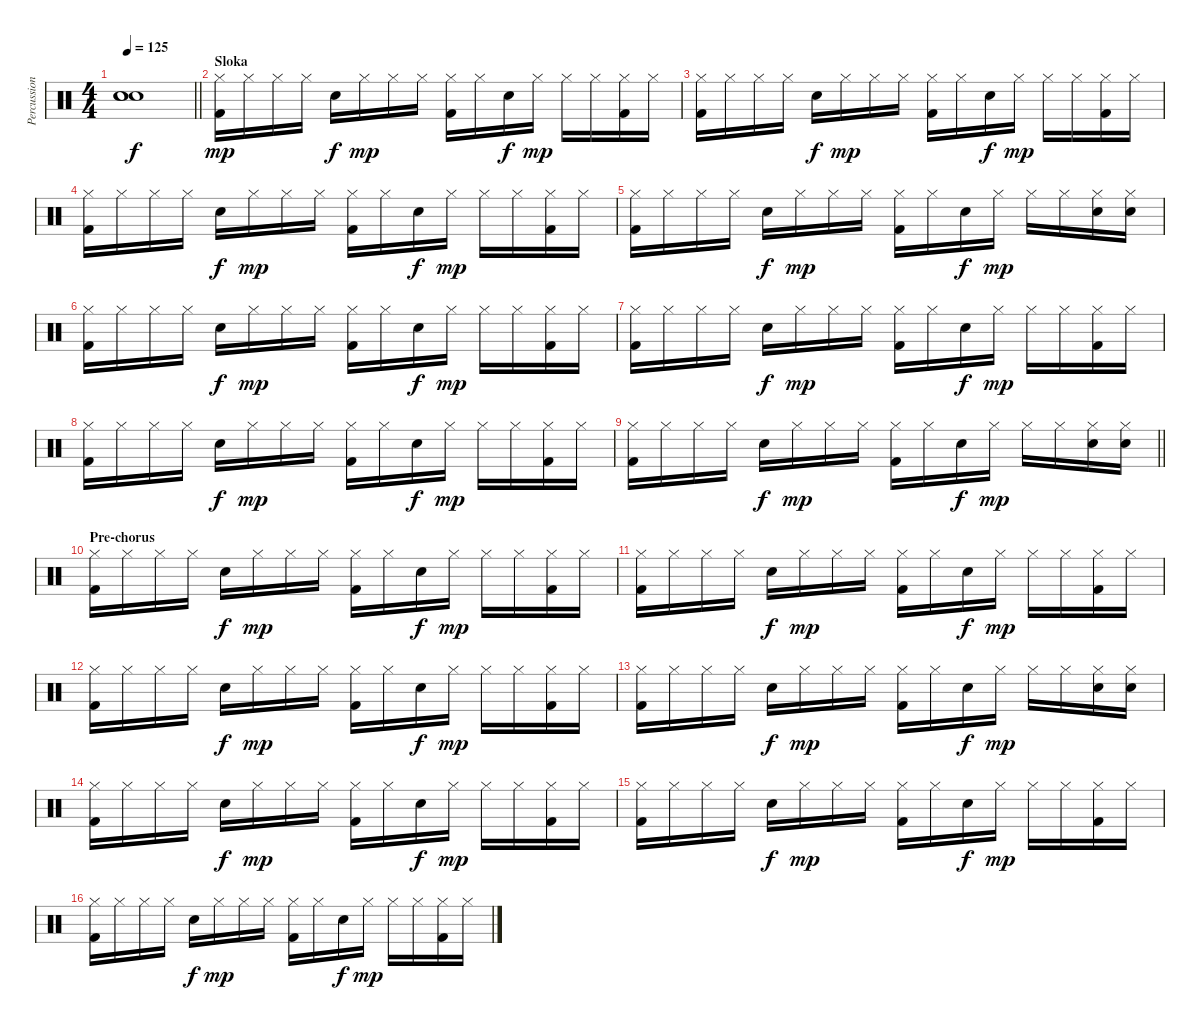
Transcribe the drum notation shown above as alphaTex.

\track ("Percussion" "Percussion") {instrument percussion}
\staff {score}
\articulation defaults
\ts (4 4)
\tempo 125
\clef neutral
\barLineRight lightlight
\ks c
("Snare (hit)"{t} "Snare (hit)"{t} "Snare (hit)"{t}).1{dy f} |
\section ("" "Sloka")
("Hi-Hat (closed)" "Kick (hit) 2").16{dy mp} "Hi-Hat (closed)".16 "Hi-Hat (closed)".16 "Hi-Hat (closed)".16 "Electric Snare (hit)".16{dy f} "Hi-Hat (closed)".16{dy mp} "Hi-Hat (closed)".16 "Hi-Hat (closed)".16 ("Hi-Hat (closed)" "Kick (hit) 2").16 "Hi-Hat (closed)".16 "Electric Snare (hit)".16{dy f} "Hi-Hat (closed)".16{dy mp} "Hi-Hat (closed)".16 "Hi-Hat (closed)".16 ("Hi-Hat (closed)" "Kick (hit) 2").16 "Hi-Hat (closed)".16 |
("Hi-Hat (closed)" "Kick (hit) 2").16 "Hi-Hat (closed)".16 "Hi-Hat (closed)".16 "Hi-Hat (closed)".16 "Electric Snare (hit)".16{dy f} "Hi-Hat (closed)".16{dy mp} "Hi-Hat (closed)".16 "Hi-Hat (closed)".16 ("Hi-Hat (closed)" "Kick (hit) 2").16 "Hi-Hat (closed)".16 "Electric Snare (hit)".16{dy f} "Hi-Hat (closed)".16{dy mp} "Hi-Hat (closed)".16 "Hi-Hat (closed)".16 ("Hi-Hat (closed)" "Kick (hit) 2").16 "Hi-Hat (closed)".16 |
("Hi-Hat (closed)" "Kick (hit) 2").16 "Hi-Hat (closed)".16 "Hi-Hat (closed)".16 "Hi-Hat (closed)".16 "Electric Snare (hit)".16{dy f} "Hi-Hat (closed)".16{dy mp} "Hi-Hat (closed)".16 "Hi-Hat (closed)".16 ("Hi-Hat (closed)" "Kick (hit) 2").16 "Hi-Hat (closed)".16 "Electric Snare (hit)".16{dy f} "Hi-Hat (closed)".16{dy mp} "Hi-Hat (closed)".16 "Hi-Hat (closed)".16 ("Hi-Hat (closed)" "Kick (hit) 2").16 "Hi-Hat (closed)".16 |
("Hi-Hat (closed)" "Kick (hit) 2").16 "Hi-Hat (closed)".16 "Hi-Hat (closed)".16 "Hi-Hat (closed)".16 "Electric Snare (hit)".16{dy f} "Hi-Hat (closed)".16{dy mp} "Hi-Hat (closed)".16 "Hi-Hat (closed)".16 ("Hi-Hat (closed)" "Kick (hit) 2").16 "Hi-Hat (closed)".16 "Electric Snare (hit)".16{dy f} "Hi-Hat (closed)".16{dy mp} "Hi-Hat (closed)".16 "Hi-Hat (closed)".16 ("Hi-Hat (closed)" "Electric Snare (hit)").16 ("Hi-Hat (closed)" "Electric Snare (hit)").16 |
("Hi-Hat (closed)" "Kick (hit) 2").16 "Hi-Hat (closed)".16 "Hi-Hat (closed)".16 "Hi-Hat (closed)".16 "Electric Snare (hit)".16{dy f} "Hi-Hat (closed)".16{dy mp} "Hi-Hat (closed)".16 "Hi-Hat (closed)".16 ("Hi-Hat (closed)" "Kick (hit) 2").16 "Hi-Hat (closed)".16 "Electric Snare (hit)".16{dy f} "Hi-Hat (closed)".16{dy mp} "Hi-Hat (closed)".16 "Hi-Hat (closed)".16 ("Hi-Hat (closed)" "Kick (hit) 2").16 "Hi-Hat (closed)".16 |
("Hi-Hat (closed)" "Kick (hit) 2").16 "Hi-Hat (closed)".16 "Hi-Hat (closed)".16 "Hi-Hat (closed)".16 "Electric Snare (hit)".16{dy f} "Hi-Hat (closed)".16{dy mp} "Hi-Hat (closed)".16 "Hi-Hat (closed)".16 ("Hi-Hat (closed)" "Kick (hit) 2").16 "Hi-Hat (closed)".16 "Electric Snare (hit)".16{dy f} "Hi-Hat (closed)".16{dy mp} "Hi-Hat (closed)".16 "Hi-Hat (closed)".16 ("Hi-Hat (closed)" "Kick (hit) 2").16 "Hi-Hat (closed)".16 |
("Hi-Hat (closed)" "Kick (hit) 2").16 "Hi-Hat (closed)".16 "Hi-Hat (closed)".16 "Hi-Hat (closed)".16 "Electric Snare (hit)".16{dy f} "Hi-Hat (closed)".16{dy mp} "Hi-Hat (closed)".16 "Hi-Hat (closed)".16 ("Hi-Hat (closed)" "Kick (hit) 2").16 "Hi-Hat (closed)".16 "Electric Snare (hit)".16{dy f} "Hi-Hat (closed)".16{dy mp} "Hi-Hat (closed)".16 "Hi-Hat (closed)".16 ("Hi-Hat (closed)" "Kick (hit) 2").16 "Hi-Hat (closed)".16 |
\barLineRight lightlight
("Hi-Hat (closed)" "Kick (hit) 2").16 "Hi-Hat (closed)".16 "Hi-Hat (closed)".16 "Hi-Hat (closed)".16 "Electric Snare (hit)".16{dy f} "Hi-Hat (closed)".16{dy mp} "Hi-Hat (closed)".16 "Hi-Hat (closed)".16 ("Hi-Hat (closed)" "Kick (hit) 2").16 "Hi-Hat (closed)".16 "Electric Snare (hit)".16{dy f} "Hi-Hat (closed)".16{dy mp} "Hi-Hat (closed)".16 "Hi-Hat (closed)".16 ("Hi-Hat (closed)" "Electric Snare (hit)").16 ("Hi-Hat (closed)" "Electric Snare (hit)").16 |
\section ("" "Pre-chorus")
("Hi-Hat (closed)" "Kick (hit) 2").16 "Hi-Hat (closed)".16 "Hi-Hat (closed)".16 "Hi-Hat (closed)".16 "Electric Snare (hit)".16{dy f} "Hi-Hat (closed)".16{dy mp} "Hi-Hat (closed)".16 "Hi-Hat (closed)".16 ("Hi-Hat (closed)" "Kick (hit) 2").16 "Hi-Hat (closed)".16 "Electric Snare (hit)".16{dy f} "Hi-Hat (closed)".16{dy mp} "Hi-Hat (closed)".16 "Hi-Hat (closed)".16 ("Hi-Hat (closed)" "Kick (hit) 2").16 "Hi-Hat (closed)".16 |
("Hi-Hat (closed)" "Kick (hit) 2").16 "Hi-Hat (closed)".16 "Hi-Hat (closed)".16 "Hi-Hat (closed)".16 "Electric Snare (hit)".16{dy f} "Hi-Hat (closed)".16{dy mp} "Hi-Hat (closed)".16 "Hi-Hat (closed)".16 ("Hi-Hat (closed)" "Kick (hit) 2").16 "Hi-Hat (closed)".16 "Electric Snare (hit)".16{dy f} "Hi-Hat (closed)".16{dy mp} "Hi-Hat (closed)".16 "Hi-Hat (closed)".16 ("Hi-Hat (closed)" "Kick (hit) 2").16 "Hi-Hat (closed)".16 |
("Hi-Hat (closed)" "Kick (hit) 2").16 "Hi-Hat (closed)".16 "Hi-Hat (closed)".16 "Hi-Hat (closed)".16 "Electric Snare (hit)".16{dy f} "Hi-Hat (closed)".16{dy mp} "Hi-Hat (closed)".16 "Hi-Hat (closed)".16 ("Hi-Hat (closed)" "Kick (hit) 2").16 "Hi-Hat (closed)".16 "Electric Snare (hit)".16{dy f} "Hi-Hat (closed)".16{dy mp} "Hi-Hat (closed)".16 "Hi-Hat (closed)".16 ("Hi-Hat (closed)" "Kick (hit) 2").16 "Hi-Hat (closed)".16 |
("Hi-Hat (closed)" "Kick (hit) 2").16 "Hi-Hat (closed)".16 "Hi-Hat (closed)".16 "Hi-Hat (closed)".16 "Electric Snare (hit)".16{dy f} "Hi-Hat (closed)".16{dy mp} "Hi-Hat (closed)".16 "Hi-Hat (closed)".16 ("Hi-Hat (closed)" "Kick (hit) 2").16 "Hi-Hat (closed)".16 "Electric Snare (hit)".16{dy f} "Hi-Hat (closed)".16{dy mp} "Hi-Hat (closed)".16 "Hi-Hat (closed)".16 ("Hi-Hat (closed)" "Electric Snare (hit)").16 ("Hi-Hat (closed)" "Electric Snare (hit)").16 |
("Hi-Hat (closed)" "Kick (hit) 2").16 "Hi-Hat (closed)".16 "Hi-Hat (closed)".16 "Hi-Hat (closed)".16 "Electric Snare (hit)".16{dy f} "Hi-Hat (closed)".16{dy mp} "Hi-Hat (closed)".16 "Hi-Hat (closed)".16 ("Hi-Hat (closed)" "Kick (hit) 2").16 "Hi-Hat (closed)".16 "Electric Snare (hit)".16{dy f} "Hi-Hat (closed)".16{dy mp} "Hi-Hat (closed)".16 "Hi-Hat (closed)".16 ("Hi-Hat (closed)" "Kick (hit) 2").16 "Hi-Hat (closed)".16 |
("Hi-Hat (closed)" "Kick (hit) 2").16 "Hi-Hat (closed)".16 "Hi-Hat (closed)".16 "Hi-Hat (closed)".16 "Electric Snare (hit)".16{dy f} "Hi-Hat (closed)".16{dy mp} "Hi-Hat (closed)".16 "Hi-Hat (closed)".16 ("Hi-Hat (closed)" "Kick (hit) 2").16 "Hi-Hat (closed)".16 "Electric Snare (hit)".16{dy f} "Hi-Hat (closed)".16{dy mp} "Hi-Hat (closed)".16 "Hi-Hat (closed)".16 ("Hi-Hat (closed)" "Kick (hit) 2").16 "Hi-Hat (closed)".16 |
("Hi-Hat (closed)" "Kick (hit) 2").16 "Hi-Hat (closed)".16 "Hi-Hat (closed)".16 "Hi-Hat (closed)".16 "Electric Snare (hit)".16{dy f} "Hi-Hat (closed)".16{dy mp} "Hi-Hat (closed)".16 "Hi-Hat (closed)".16 ("Hi-Hat (closed)" "Kick (hit) 2").16 "Hi-Hat (closed)".16 "Electric Snare (hit)".16{dy f} "Hi-Hat (closed)".16{dy mp} "Hi-Hat (closed)".16 "Hi-Hat (closed)".16 ("Hi-Hat (closed)" "Kick (hit) 2").16 "Hi-Hat (closed)".16
